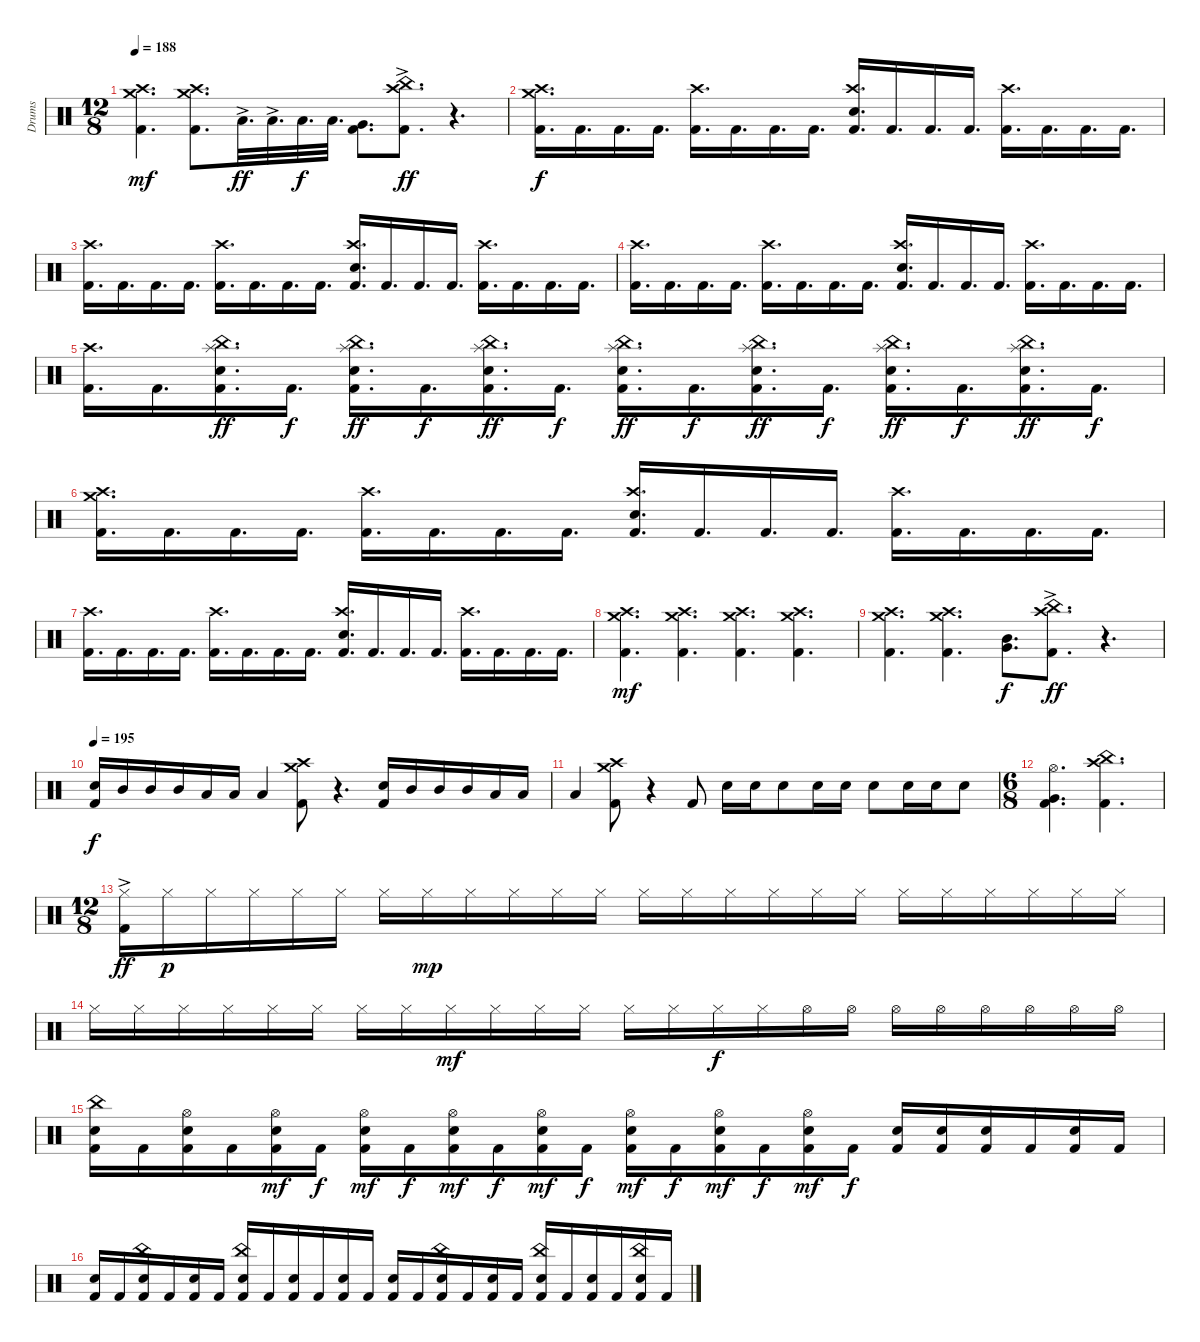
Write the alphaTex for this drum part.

\track ("Drums" "Drums") {instrument percussion}
\staff {score}
\articulation defaults
\ts (12 8)
\tempo 188
\clef neutral
\ks c
("Kick (hit) 2" "Crash high (hit)" "Crash medium (hit)").4{d dy mf} ("Kick (hit) 2" "Crash high (hit)" "Crash medium (hit)").8{d} "Low Tom (hit)"{ac}.32{d dy ff} "Low Tom (hit)"{ac}.32{d} "Low Tom (hit)".32{d dy f} "Low Tom (hit)".32{d} ("Kick (hit) 2" "Very Low Tom (hit)").8{d} ("Kick (hit) 2" "Crash high (hit)" "China (hit)"{ac}).8{d dy ff} r.4{d} |
("Kick (hit) 2" "Crash high (hit)" "Crash medium (hit)").16{d dy f} "Kick (hit) 2".16{d} "Kick (hit) 2".16{d} "Kick (hit) 2".16{d} ("Kick (hit) 2" "Crash high (hit)").16{d} "Kick (hit) 2".16{d} "Kick (hit) 2".16{d} "Kick (hit) 2".16{d} ("Kick (hit) 2" "Electric Snare (hit)" "Crash high (hit)").16{d} "Kick (hit) 2".16{d} "Kick (hit) 2".16{d} "Kick (hit) 2".16{d} ("Kick (hit) 2" "Crash high (hit)").16{d} "Kick (hit) 2".16{d} "Kick (hit) 2".16{d} "Kick (hit) 2".16{d} |
("Kick (hit) 2" "Crash high (hit)").16{d} "Kick (hit) 2".16{d} "Kick (hit) 2".16{d} "Kick (hit) 2".16{d} ("Kick (hit) 2" "Crash high (hit)").16{d} "Kick (hit) 2".16{d} "Kick (hit) 2".16{d} "Kick (hit) 2".16{d} ("Kick (hit) 2" "Electric Snare (hit)" "Crash high (hit)").16{d} "Kick (hit) 2".16{d} "Kick (hit) 2".16{d} "Kick (hit) 2".16{d} ("Kick (hit) 2" "Crash high (hit)").16{d} "Kick (hit) 2".16{d} "Kick (hit) 2".16{d} "Kick (hit) 2".16{d} |
("Kick (hit) 2" "Crash high (hit)").16{d} "Kick (hit) 2".16{d} "Kick (hit) 2".16{d} "Kick (hit) 2".16{d} ("Kick (hit) 2" "Crash high (hit)").16{d} "Kick (hit) 2".16{d} "Kick (hit) 2".16{d} "Kick (hit) 2".16{d} ("Kick (hit) 2" "Electric Snare (hit)" "Crash high (hit)").16{d} "Kick (hit) 2".16{d} "Kick (hit) 2".16{d} "Kick (hit) 2".16{d} ("Kick (hit) 2" "Crash high (hit)").16{d} "Kick (hit) 2".16{d} "Kick (hit) 2".16{d} "Kick (hit) 2".16{d} |
("Kick (hit) 2" "Crash high (hit)").16{d} "Kick (hit) 2".16{d} ("Kick (hit) 2" "Electric Snare (hit)" "Splash (hit)" "China (hit)").16{d dy ff} "Kick (hit) 2".16{d dy f} ("Kick (hit) 2" "Electric Snare (hit)" "Splash (hit)" "China (hit)").16{d dy ff} "Kick (hit) 2".16{d dy f} ("Kick (hit) 2" "Electric Snare (hit)" "Splash (hit)" "China (hit)").16{d dy ff} "Kick (hit) 2".16{d dy f} ("Kick (hit) 2" "Electric Snare (hit)" "Splash (hit)" "China (hit)").16{d dy ff} "Kick (hit) 2".16{d dy f} ("Kick (hit) 2" "Electric Snare (hit)" "Splash (hit)" "China (hit)").16{d dy ff} "Kick (hit) 2".16{d dy f} ("Kick (hit) 2" "Electric Snare (hit)" "Splash (hit)" "China (hit)").16{d dy ff} "Kick (hit) 2".16{d dy f} ("Kick (hit) 2" "Electric Snare (hit)" "Splash (hit)" "China (hit)").16{d dy ff} "Kick (hit) 2".16{d dy f} |
("Kick (hit) 2" "Crash high (hit)" "Crash medium (hit)").16{d} "Kick (hit) 2".16{d} "Kick (hit) 2".16{d} "Kick (hit) 2".16{d} ("Kick (hit) 2" "Crash high (hit)").16{d} "Kick (hit) 2".16{d} "Kick (hit) 2".16{d} "Kick (hit) 2".16{d} ("Kick (hit) 2" "Electric Snare (hit)" "Crash high (hit)").16{d} "Kick (hit) 2".16{d} "Kick (hit) 2".16{d} "Kick (hit) 2".16{d} ("Kick (hit) 2" "Crash high (hit)").16{d} "Kick (hit) 2".16{d} "Kick (hit) 2".16{d} "Kick (hit) 2".16{d} |
("Kick (hit) 2" "Crash high (hit)").16{d} "Kick (hit) 2".16{d} "Kick (hit) 2".16{d} "Kick (hit) 2".16{d} ("Kick (hit) 2" "Crash high (hit)").16{d} "Kick (hit) 2".16{d} "Kick (hit) 2".16{d} "Kick (hit) 2".16{d} ("Kick (hit) 2" "Electric Snare (hit)" "Crash high (hit)").16{d} "Kick (hit) 2".16{d} "Kick (hit) 2".16{d} "Kick (hit) 2".16{d} ("Kick (hit) 2" "Crash high (hit)").16{d} "Kick (hit) 2".16{d} "Kick (hit) 2".16{d} "Kick (hit) 2".16{d} |
("Kick (hit) 2" "Crash high (hit)" "Crash medium (hit)").4{d dy mf} ("Kick (hit) 2" "Crash high (hit)" "Crash medium (hit)").4{d} ("Kick (hit) 2" "Crash high (hit)" "Crash medium (hit)").4{d} ("Kick (hit) 2" "Crash high (hit)" "Crash medium (hit)").4{d} |
("Kick (hit) 2" "Crash high (hit)" "Crash medium (hit)").4{d} ("Kick (hit) 2" "Crash high (hit)" "Crash medium (hit)").4{d} ("Very Low Tom (hit)" "Mid Tom (hit)").8{d dy f} ("Kick (hit) 2" "Crash high (hit)" "China (hit)"{ac}).8{d dy ff} r.4{d} |
\tempo 195
("Kick (hit) 2" "Electric Snare (hit)").16{dy f} "Mid Tom (hit)".16 "Mid Tom (hit)".16 "Mid Tom (hit)".16 "Low Tom (hit)".16 "Low Tom (hit)".16 "Low Tom (hit)".4 ("Kick (hit) 2" "Crash high (hit)" "Crash medium (hit)").8 r.4{d} ("Kick (hit) 2" "Electric Snare (hit)").16 "Mid Tom (hit)".16 "Mid Tom (hit)".16 "Mid Tom (hit)".16 "Low Tom (hit)".16 "Low Tom (hit)".16 |
"Low Tom (hit)".4 ("Kick (hit) 2" "Crash high (hit)" "Crash medium (hit)").8 r.4 "Kick (hit) 2".8 "Electric Snare (hit)".16 "Electric Snare (hit)".16 "Electric Snare (hit)".8 "Electric Snare (hit)".16 "Electric Snare (hit)".16 "Electric Snare (hit)".8 "Electric Snare (hit)".16 "Electric Snare (hit)".16 "Electric Snare (hit)".8 |
\ts (6 8)
("Kick (hit) 2" "Very Low Tom (hit)" "Hi-Hat (open)").4{d} ("Kick (hit) 2" "Crash high (hit)" "China (hit)").4{d} |
\ts (12 8)
("Kick (hit) 2" "Hi-Hat (closed)"{ac}).16{dy ff} "Hi-Hat (closed)".16{dy p} "Hi-Hat (closed)".16 "Hi-Hat (closed)".16 "Hi-Hat (closed)".16 "Hi-Hat (closed)".16 "Hi-Hat (closed)".16 "Hi-Hat (closed)".16{dy mp} "Hi-Hat (closed)".16 "Hi-Hat (closed)".16 "Hi-Hat (closed)".16 "Hi-Hat (closed)".16 "Hi-Hat (closed)".16 "Hi-Hat (closed)".16 "Hi-Hat (closed)".16 "Hi-Hat (closed)".16 "Hi-Hat (closed)".16 "Hi-Hat (closed)".16 "Hi-Hat (closed)".16 "Hi-Hat (closed)".16 "Hi-Hat (closed)".16 "Hi-Hat (closed)".16 "Hi-Hat (closed)".16 "Hi-Hat (closed)".16 |
"Hi-Hat (closed)".16 "Hi-Hat (closed)".16 "Hi-Hat (closed)".16 "Hi-Hat (closed)".16 "Hi-Hat (closed)".16 "Hi-Hat (closed)".16 "Hi-Hat (closed)".16 "Hi-Hat (closed)".16 "Hi-Hat (closed)".16{dy mf} "Hi-Hat (closed)".16 "Hi-Hat (closed)".16 "Hi-Hat (closed)".16 "Hi-Hat (closed)".16 "Hi-Hat (closed)".16 "Hi-Hat (closed)".16{dy f} "Hi-Hat (closed)".16 "Hi-Hat (open)".16 "Hi-Hat (open)".16 "Hi-Hat (open)".16 "Hi-Hat (open)".16 "Hi-Hat (open)".16 "Hi-Hat (open)".16 "Hi-Hat (open)".16 "Hi-Hat (open)".16 |
("Kick (hit) 2" "Electric Snare (hit)" "China (hit)").16 "Kick (hit) 2".16 ("Kick (hit) 2" "Electric Snare (hit)" "Hi-Hat (open)").16 "Kick (hit) 2".16 ("Kick (hit) 2" "Electric Snare (hit)" "Hi-Hat (open)").16{dy mf} "Kick (hit) 2".16{dy f} ("Kick (hit) 2" "Electric Snare (hit)" "Hi-Hat (open)").16{dy mf} "Kick (hit) 2".16{dy f} ("Kick (hit) 2" "Electric Snare (hit)" "Hi-Hat (open)").16{dy mf} "Kick (hit) 2".16{dy f} ("Kick (hit) 2" "Electric Snare (hit)" "Hi-Hat (open)").16{dy mf} "Kick (hit) 2".16{dy f} ("Kick (hit) 2" "Electric Snare (hit)" "Hi-Hat (open)").16{dy mf} "Kick (hit) 2".16{dy f} ("Kick (hit) 2" "Electric Snare (hit)" "Hi-Hat (open)").16{dy mf} "Kick (hit) 2".16{dy f} ("Kick (hit) 2" "Electric Snare (hit)" "Hi-Hat (open)").16{dy mf} "Kick (hit) 2".16{dy f} ("Kick (hit) 2" "Electric Snare (hit)").16 ("Kick (hit) 2" "Electric Snare (hit)").16 ("Kick (hit) 2" "Electric Snare (hit)").16 "Kick (hit) 2".16 ("Kick (hit) 2" "Electric Snare (hit)").16 "Kick (hit) 2".16 |
("Kick (hit) 2" "Electric Snare (hit)").16 "Kick (hit) 2".16 ("Kick (hit) 2" "Electric Snare (hit)" "China (hit)").16 "Kick (hit) 2".16 ("Kick (hit) 2" "Electric Snare (hit)").16 "Kick (hit) 2".16 ("Kick (hit) 2" "Electric Snare (hit)" "China (hit)").16 "Kick (hit) 2".16 ("Kick (hit) 2" "Electric Snare (hit)").16 "Kick (hit) 2".16 ("Kick (hit) 2" "Electric Snare (hit)").16 "Kick (hit) 2".16 ("Kick (hit) 2" "Electric Snare (hit)").16 "Kick (hit) 2".16 ("Kick (hit) 2" "Electric Snare (hit)" "China (hit)").16 "Kick (hit) 2".16 ("Kick (hit) 2" "Electric Snare (hit)").16 "Kick (hit) 2".16 ("Kick (hit) 2" "Electric Snare (hit)" "China (hit)").16 "Kick (hit) 2".16 ("Kick (hit) 2" "Electric Snare (hit)").16 "Kick (hit) 2".16 ("Kick (hit) 2" "Electric Snare (hit)" "China (hit)").16 "Kick (hit) 2".16
